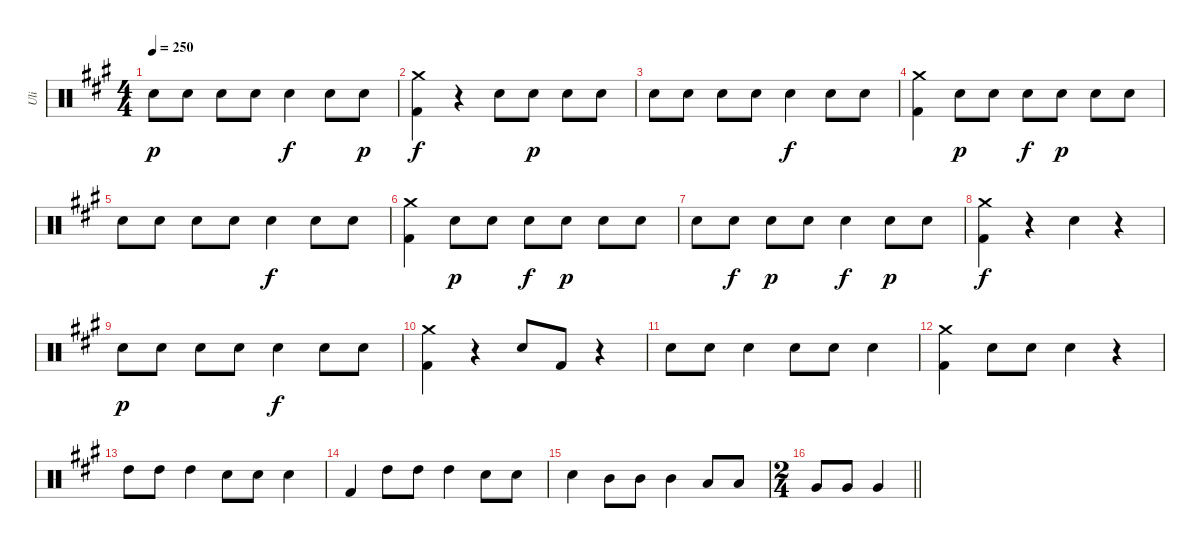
\track ("Uli" "Uli") {instrument percussion}
\staff {score}
\articulation defaults
\ts (4 4)
\tempo 250
\clef neutral
\ks a "Snare (hit) 2".8{dy p} "Snare (hit) 2".8 "Snare (hit) 2".8 "Snare (hit) 2".8 "Snare (hit) 2".4{dy f} "Snare (hit) 2".8 "Snare (hit) 2".8{dy p}
|
("Crash medium (hit)" "Kick (hit) 2").4{dy f} r.4 "Snare (hit) 2".8 "Snare (hit) 2".8{dy p} "Snare (hit) 2".8 "Snare (hit) 2".8 |
"Snare (hit) 2".8 "Snare (hit) 2".8 "Snare (hit) 2".8 "Snare (hit) 2".8 "Snare (hit) 2".4{dy f} "Snare (hit) 2".8 "Snare (hit) 2".8 |
("Crash medium (hit)" "Kick (hit) 2").4 "Snare (hit) 2".8{dy p} "Snare (hit) 2".8 "Snare (hit) 2".8{dy f} "Snare (hit) 2".8{dy p} "Snare (hit) 2".8 "Snare (hit) 2".8 |
"Snare (hit) 2".8 "Snare (hit) 2".8 "Snare (hit) 2".8 "Snare (hit) 2".8 "Snare (hit) 2".4{dy f} "Snare (hit) 2".8 "Snare (hit) 2".8 |
("Crash medium (hit)" "Kick (hit) 2").4 "Snare (hit) 2".8{dy p} "Snare (hit) 2".8 "Snare (hit) 2".8{dy f} "Snare (hit) 2".8{dy p} "Snare (hit) 2".8 "Snare (hit) 2".8 |
"Snare (hit) 2".8 "Snare (hit) 2".8{dy f} "Snare (hit) 2".8{dy p} "Snare (hit) 2".8 "Snare (hit) 2".4{dy f} "Snare (hit) 2".8{dy p} "Snare (hit) 2".8 |
("Crash medium (hit)" "Kick (hit) 2").4{dy f} r.4 "Snare (hit) 2".4 r.4 |
"Snare (hit) 2".8{dy p} "Snare (hit) 2".8 "Snare (hit) 2".8 "Snare (hit) 2".8 "Snare (hit) 2".4{dy f} "Snare (hit) 2".8 "Snare (hit) 2".8 |
("Crash medium (hit)" "Kick (hit) 2").4 r.4 "Snare (hit) 2".8 "Kick (hit) 2".8 r.4 |
"Snare (hit) 2".8 "Snare (hit) 2".8 "Snare (hit) 2".4 "Snare (hit) 2".8 "Snare (hit) 2".8 "Snare (hit) 2".4 |
("Crash medium (hit)" "Kick (hit) 2").4 "Snare (hit) 2".8 "Snare (hit) 2".8 "Snare (hit) 2".4 r.4 |
"High Tom (hit)".8 "High Tom (hit)".8 "High Tom (hit)".4 "Snare (hit) 2".8 "Snare (hit) 2".8 "Snare (hit) 2".4 |
"Kick (hit) 2".4 "High Tom (hit)".8 "High Tom (hit)".8 "High Tom (hit)".4 "Snare (hit) 2".8 "Snare (hit) 2".8 |
"Snare (hit) 2".4 "Mid Tom (hit)".8 "Mid Tom (hit)".8 "Mid Tom (hit)".4 "Low Tom (hit)".8 "Low Tom (hit)".8 |
\ts (2 4)
\barLineRight lightlight "Very Low Tom (hit)".8 "Very Low Tom (hit)".8 "Very Low Tom (hit)".4
